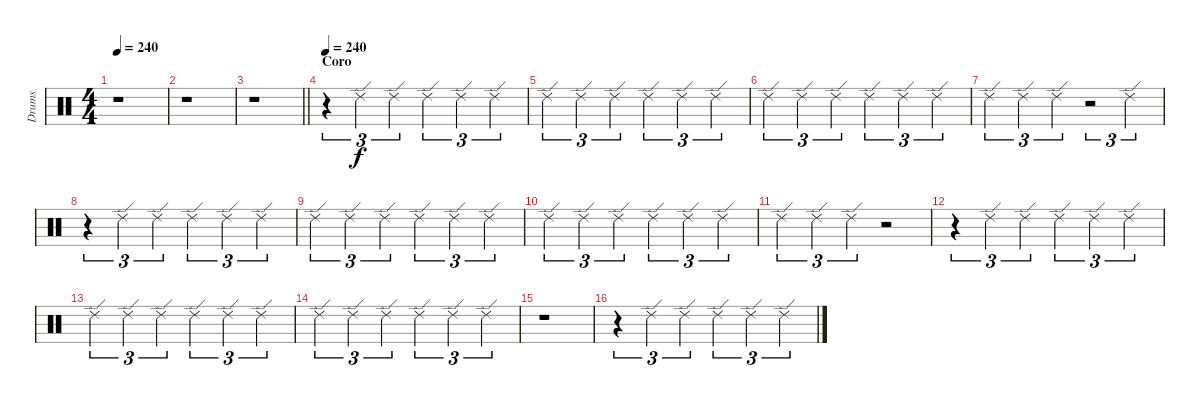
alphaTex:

\track ("Drums" "Drums") {instrument percussion}
\staff {score}
\articulation defaults
\ts (4 4)
\tempo 240
\clef neutral
\ks c
r.1{dy f} |
r.1 |
\barLineRight lightlight
r.1 |
\section ("" "Coro")
\tempo 240
r.4{tu (3 2)} "Ride (edge) 2".4{tu (3 2)} "Ride (edge) 2".4{tu (3 2)} "Ride (edge) 2".4{tu (3 2)} "Ride (edge) 2".4{tu (3 2)} "Ride (edge) 2".4{tu (3 2)} |
"Ride (edge) 2".4{tu (3 2)} "Ride (edge) 2".4{tu (3 2)} "Ride (edge) 2".4{tu (3 2)} "Ride (edge) 2".4{tu (3 2)} "Ride (edge) 2".4{tu (3 2)} "Ride (edge) 2".4{tu (3 2)} |
"Ride (edge) 2".4{tu (3 2)} "Ride (edge) 2".4{tu (3 2)} "Ride (edge) 2".4{tu (3 2)} "Ride (edge) 2".4{tu (3 2)} "Ride (edge) 2".4{tu (3 2)} "Ride (edge) 2".4{tu (3 2)} |
"Ride (edge) 2".4{tu (3 2)} "Ride (edge) 2".4{tu (3 2)} "Ride (edge) 2".4{tu (3 2)} r.2{tu (3 2)} "Ride (edge) 2".4{tu (3 2)} |
r.4{tu (3 2)} "Ride (edge) 2".4{tu (3 2)} "Ride (edge) 2".4{tu (3 2)} "Ride (edge) 2".4{tu (3 2)} "Ride (edge) 2".4{tu (3 2)} "Ride (edge) 2".4{tu (3 2)} |
"Ride (edge) 2".4{tu (3 2)} "Ride (edge) 2".4{tu (3 2)} "Ride (edge) 2".4{tu (3 2)} "Ride (edge) 2".4{tu (3 2)} "Ride (edge) 2".4{tu (3 2)} "Ride (edge) 2".4{tu (3 2)} |
"Ride (edge) 2".4{tu (3 2)} "Ride (edge) 2".4{tu (3 2)} "Ride (edge) 2".4{tu (3 2)} "Ride (edge) 2".4{tu (3 2)} "Ride (edge) 2".4{tu (3 2)} "Ride (edge) 2".4{tu (3 2)} |
"Ride (edge) 2".4{tu (3 2)} "Ride (edge) 2".4{tu (3 2)} "Ride (edge) 2".4{tu (3 2)} r.2 |
r.4{tu (3 2)} "Ride (edge) 2".4{tu (3 2)} "Ride (edge) 2".4{tu (3 2)} "Ride (edge) 2".4{tu (3 2)} "Ride (edge) 2".4{tu (3 2)} "Ride (edge) 2".4{tu (3 2)} |
"Ride (edge) 2".4{tu (3 2)} "Ride (edge) 2".4{tu (3 2)} "Ride (edge) 2".4{tu (3 2)} "Ride (edge) 2".4{tu (3 2)} "Ride (edge) 2".4{tu (3 2)} "Ride (edge) 2".4{tu (3 2)} |
"Ride (edge) 2".4{tu (3 2)} "Ride (edge) 2".4{tu (3 2)} "Ride (edge) 2".4{tu (3 2)} "Ride (edge) 2".4{tu (3 2)} "Ride (edge) 2".4{tu (3 2)} "Ride (edge) 2".4{tu (3 2)} |
r.1 |
r.4{tu (3 2)} "Ride (edge) 2".4{tu (3 2)} "Ride (edge) 2".4{tu (3 2)} "Ride (edge) 2".4{tu (3 2)} "Ride (edge) 2".4{tu (3 2)} "Ride (edge) 2".4{tu (3 2)}
